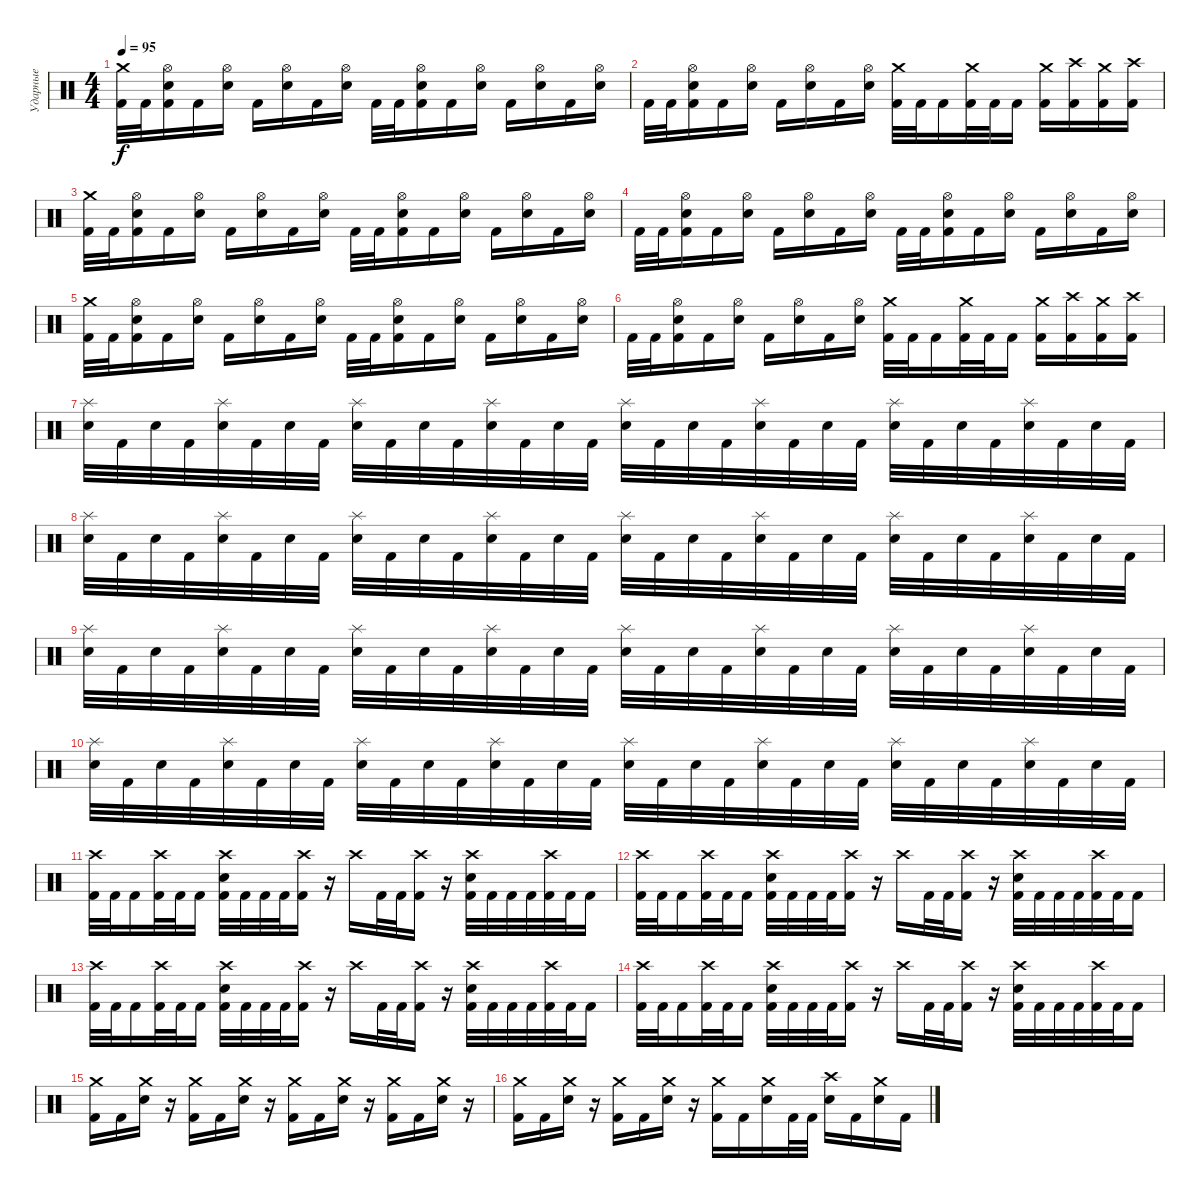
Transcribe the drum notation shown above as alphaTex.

\track ("Ударные" "Ударные") {instrument percussion}
\staff {score}
\articulation defaults
\ts (4 4)
\tempo 95
\clef neutral
\ks c
("Crash medium (hit)" "Kick (hit) 2").32{dy f} "Kick (hit) 2".32 ("Hi-Hat (open)" "Electric Snare (hit)" "Kick (hit) 2").16 "Kick (hit) 2".16 ("Hi-Hat (open)" "Electric Snare (hit)").16 "Kick (hit) 2".16 ("Hi-Hat (open)" "Electric Snare (hit)").16 "Kick (hit) 2".16 ("Hi-Hat (open)" "Electric Snare (hit)").16 "Kick (hit) 2".32 "Kick (hit) 2".32 ("Hi-Hat (open)" "Electric Snare (hit)" "Kick (hit) 2").16 "Kick (hit) 2".16 ("Hi-Hat (open)" "Electric Snare (hit)").16 "Kick (hit) 2".16 ("Hi-Hat (open)" "Electric Snare (hit)").16 "Kick (hit) 2".16 ("Hi-Hat (open)" "Electric Snare (hit)").16 |
"Kick (hit) 2".32 "Kick (hit) 2".32 ("Hi-Hat (open)" "Electric Snare (hit)" "Kick (hit) 2").16 "Kick (hit) 2".16 ("Hi-Hat (open)" "Electric Snare (hit)").16 "Kick (hit) 2".16 ("Hi-Hat (open)" "Electric Snare (hit)").16 "Kick (hit) 2".16 ("Hi-Hat (open)" "Electric Snare (hit)").16 ("Crash medium (hit)" "Kick (hit) 2").32 "Kick (hit) 2".32 "Kick (hit) 2".16 ("Crash medium (hit)" "Kick (hit) 2").32 "Kick (hit) 2".32 "Kick (hit) 2".16 ("Crash medium (hit)" "Kick (hit) 2").16 ("Crash high (hit)" "Kick (hit) 2").16 ("Crash medium (hit)" "Kick (hit) 2").16 ("Crash high (hit)" "Kick (hit) 2").16 |
("Crash medium (hit)" "Kick (hit) 2").32 "Kick (hit) 2".32 ("Hi-Hat (open)" "Electric Snare (hit)" "Kick (hit) 2").16 "Kick (hit) 2".16 ("Hi-Hat (open)" "Electric Snare (hit)").16 "Kick (hit) 2".16 ("Hi-Hat (open)" "Electric Snare (hit)").16 "Kick (hit) 2".16 ("Hi-Hat (open)" "Electric Snare (hit)").16 "Kick (hit) 2".32 "Kick (hit) 2".32 ("Hi-Hat (open)" "Electric Snare (hit)" "Kick (hit) 2").16 "Kick (hit) 2".16 ("Hi-Hat (open)" "Electric Snare (hit)").16 "Kick (hit) 2".16 ("Hi-Hat (open)" "Electric Snare (hit)").16 "Kick (hit) 2".16 ("Hi-Hat (open)" "Electric Snare (hit)").16 |
"Kick (hit) 2".32 "Kick (hit) 2".32 ("Hi-Hat (open)" "Electric Snare (hit)" "Kick (hit) 2").16 "Kick (hit) 2".16 ("Hi-Hat (open)" "Electric Snare (hit)").16 "Kick (hit) 2".16 ("Hi-Hat (open)" "Electric Snare (hit)").16 "Kick (hit) 2".16 ("Hi-Hat (open)" "Electric Snare (hit)").16 "Kick (hit) 2".32 "Kick (hit) 2".32 ("Hi-Hat (open)" "Electric Snare (hit)" "Kick (hit) 2").16 "Kick (hit) 2".16 ("Hi-Hat (open)" "Electric Snare (hit)").16 "Kick (hit) 2".16 ("Hi-Hat (open)" "Electric Snare (hit)").16 "Kick (hit) 2".16 ("Hi-Hat (open)" "Electric Snare (hit)").16 |
("Crash medium (hit)" "Kick (hit) 2").32 "Kick (hit) 2".32 ("Hi-Hat (open)" "Electric Snare (hit)" "Kick (hit) 2").16 "Kick (hit) 2".16 ("Hi-Hat (open)" "Electric Snare (hit)").16 "Kick (hit) 2".16 ("Hi-Hat (open)" "Electric Snare (hit)").16 "Kick (hit) 2".16 ("Hi-Hat (open)" "Electric Snare (hit)").16 "Kick (hit) 2".32 "Kick (hit) 2".32 ("Hi-Hat (open)" "Electric Snare (hit)" "Kick (hit) 2").16 "Kick (hit) 2".16 ("Hi-Hat (open)" "Electric Snare (hit)").16 "Kick (hit) 2".16 ("Hi-Hat (open)" "Electric Snare (hit)").16 "Kick (hit) 2".16 ("Hi-Hat (open)" "Electric Snare (hit)").16 |
"Kick (hit) 2".32 "Kick (hit) 2".32 ("Hi-Hat (open)" "Electric Snare (hit)" "Kick (hit) 2").16 "Kick (hit) 2".16 ("Hi-Hat (open)" "Electric Snare (hit)").16 "Kick (hit) 2".16 ("Hi-Hat (open)" "Electric Snare (hit)").16 "Kick (hit) 2".16 ("Hi-Hat (open)" "Electric Snare (hit)").16 ("Crash medium (hit)" "Kick (hit) 2").32 "Kick (hit) 2".32 "Kick (hit) 2".16 ("Crash medium (hit)" "Kick (hit) 2").32 "Kick (hit) 2".32 "Kick (hit) 2".16 ("Crash medium (hit)" "Kick (hit) 2").16 ("Crash high (hit)" "Kick (hit) 2").16 ("Crash medium (hit)" "Kick (hit) 2").16 ("Crash high (hit)" "Kick (hit) 2").16 |
("Splash (hit)" "Electric Snare (hit)").32 "Kick (hit) 2".32 "Electric Snare (hit)".32 "Kick (hit) 2".32 ("Splash (hit)" "Electric Snare (hit)").32 "Kick (hit) 2".32 "Electric Snare (hit)".32 "Kick (hit) 2".32 ("Splash (hit)" "Electric Snare (hit)").32 "Kick (hit) 2".32 "Electric Snare (hit)".32 "Kick (hit) 2".32 ("Splash (hit)" "Electric Snare (hit)").32 "Kick (hit) 2".32 "Electric Snare (hit)".32 "Kick (hit) 2".32 ("Splash (hit)" "Electric Snare (hit)").32 "Kick (hit) 2".32 "Electric Snare (hit)".32 "Kick (hit) 2".32 ("Splash (hit)" "Electric Snare (hit)").32 "Kick (hit) 2".32 "Electric Snare (hit)".32 "Kick (hit) 2".32 ("Splash (hit)" "Electric Snare (hit)").32 "Kick (hit) 2".32 "Electric Snare (hit)".32 "Kick (hit) 2".32 ("Splash (hit)" "Electric Snare (hit)").32 "Kick (hit) 2".32 "Electric Snare (hit)".32 "Kick (hit) 2".32 |
("Splash (hit)" "Electric Snare (hit)").32 "Kick (hit) 2".32 "Electric Snare (hit)".32 "Kick (hit) 2".32 ("Splash (hit)" "Electric Snare (hit)").32 "Kick (hit) 2".32 "Electric Snare (hit)".32 "Kick (hit) 2".32 ("Splash (hit)" "Electric Snare (hit)").32 "Kick (hit) 2".32 "Electric Snare (hit)".32 "Kick (hit) 2".32 ("Splash (hit)" "Electric Snare (hit)").32 "Kick (hit) 2".32 "Electric Snare (hit)".32 "Kick (hit) 2".32 ("Splash (hit)" "Electric Snare (hit)").32 "Kick (hit) 2".32 "Electric Snare (hit)".32 "Kick (hit) 2".32 ("Splash (hit)" "Electric Snare (hit)").32 "Kick (hit) 2".32 "Electric Snare (hit)".32 "Kick (hit) 2".32 ("Splash (hit)" "Electric Snare (hit)").32 "Kick (hit) 2".32 "Electric Snare (hit)".32 "Kick (hit) 2".32 ("Splash (hit)" "Electric Snare (hit)").32 "Kick (hit) 2".32 "Electric Snare (hit)".32 "Kick (hit) 2".32 |
("Splash (hit)" "Electric Snare (hit)").32 "Kick (hit) 2".32 "Electric Snare (hit)".32 "Kick (hit) 2".32 ("Splash (hit)" "Electric Snare (hit)").32 "Kick (hit) 2".32 "Electric Snare (hit)".32 "Kick (hit) 2".32 ("Splash (hit)" "Electric Snare (hit)").32 "Kick (hit) 2".32 "Electric Snare (hit)".32 "Kick (hit) 2".32 ("Splash (hit)" "Electric Snare (hit)").32 "Kick (hit) 2".32 "Electric Snare (hit)".32 "Kick (hit) 2".32 ("Splash (hit)" "Electric Snare (hit)").32 "Kick (hit) 2".32 "Electric Snare (hit)".32 "Kick (hit) 2".32 ("Splash (hit)" "Electric Snare (hit)").32 "Kick (hit) 2".32 "Electric Snare (hit)".32 "Kick (hit) 2".32 ("Splash (hit)" "Electric Snare (hit)").32 "Kick (hit) 2".32 "Electric Snare (hit)".32 "Kick (hit) 2".32 ("Splash (hit)" "Electric Snare (hit)").32 "Kick (hit) 2".32 "Electric Snare (hit)".32 "Kick (hit) 2".32 |
("Splash (hit)" "Electric Snare (hit)").32 "Kick (hit) 2".32 "Electric Snare (hit)".32 "Kick (hit) 2".32 ("Splash (hit)" "Electric Snare (hit)").32 "Kick (hit) 2".32 "Electric Snare (hit)".32 "Kick (hit) 2".32 ("Splash (hit)" "Electric Snare (hit)").32 "Kick (hit) 2".32 "Electric Snare (hit)".32 "Kick (hit) 2".32 ("Splash (hit)" "Electric Snare (hit)").32 "Kick (hit) 2".32 "Electric Snare (hit)".32 "Kick (hit) 2".32 ("Splash (hit)" "Electric Snare (hit)").32 "Kick (hit) 2".32 "Electric Snare (hit)".32 "Kick (hit) 2".32 ("Splash (hit)" "Electric Snare (hit)").32 "Kick (hit) 2".32 "Electric Snare (hit)".32 "Kick (hit) 2".32 ("Splash (hit)" "Electric Snare (hit)").32 "Kick (hit) 2".32 "Electric Snare (hit)".32 "Kick (hit) 2".32 ("Splash (hit)" "Electric Snare (hit)").32 "Kick (hit) 2".32 "Electric Snare (hit)".32 "Kick (hit) 2".32 |
("Crash high (hit)" "Kick (hit) 2").32 "Kick (hit) 2".32 "Kick (hit) 2".16 ("Crash high (hit)" "Kick (hit) 2").32 "Kick (hit) 2".32 "Kick (hit) 2".16 ("Crash high (hit)" "Electric Snare (hit)" "Kick (hit) 2").32 "Kick (hit) 2".32 "Kick (hit) 2".32 "Kick (hit) 2".32 ("Crash high (hit)" "Kick (hit) 2").16 r.16 "Crash high (hit)".16 "Kick (hit) 2".32 "Kick (hit) 2".32 ("Crash high (hit)" "Kick (hit) 2").16 r.16 ("Crash high (hit)" "Electric Snare (hit)" "Kick (hit) 2").32 "Kick (hit) 2".32 "Kick (hit) 2".32 "Kick (hit) 2".32 ("Crash high (hit)" "Kick (hit) 2").32 "Kick (hit) 2".32 "Kick (hit) 2".16 |
("Crash high (hit)" "Kick (hit) 2").32 "Kick (hit) 2".32 "Kick (hit) 2".16 ("Crash high (hit)" "Kick (hit) 2").32 "Kick (hit) 2".32 "Kick (hit) 2".16 ("Crash high (hit)" "Electric Snare (hit)" "Kick (hit) 2").32 "Kick (hit) 2".32 "Kick (hit) 2".32 "Kick (hit) 2".32 ("Crash high (hit)" "Kick (hit) 2").16 r.16 "Crash high (hit)".16 "Kick (hit) 2".32 "Kick (hit) 2".32 ("Crash high (hit)" "Kick (hit) 2").16 r.16 ("Crash high (hit)" "Electric Snare (hit)" "Kick (hit) 2").32 "Kick (hit) 2".32 "Kick (hit) 2".32 "Kick (hit) 2".32 ("Crash high (hit)" "Kick (hit) 2").32 "Kick (hit) 2".32 "Kick (hit) 2".16 |
("Crash high (hit)" "Kick (hit) 2").32 "Kick (hit) 2".32 "Kick (hit) 2".16 ("Crash high (hit)" "Kick (hit) 2").32 "Kick (hit) 2".32 "Kick (hit) 2".16 ("Crash high (hit)" "Electric Snare (hit)" "Kick (hit) 2").32 "Kick (hit) 2".32 "Kick (hit) 2".32 "Kick (hit) 2".32 ("Crash high (hit)" "Kick (hit) 2").16 r.16 "Crash high (hit)".16 "Kick (hit) 2".32 "Kick (hit) 2".32 ("Crash high (hit)" "Kick (hit) 2").16 r.16 ("Crash high (hit)" "Electric Snare (hit)" "Kick (hit) 2").32 "Kick (hit) 2".32 "Kick (hit) 2".32 "Kick (hit) 2".32 ("Crash high (hit)" "Kick (hit) 2").32 "Kick (hit) 2".32 "Kick (hit) 2".16 |
("Crash high (hit)" "Kick (hit) 2").32 "Kick (hit) 2".32 "Kick (hit) 2".16 ("Crash high (hit)" "Kick (hit) 2").32 "Kick (hit) 2".32 "Kick (hit) 2".16 ("Crash high (hit)" "Electric Snare (hit)" "Kick (hit) 2").32 "Kick (hit) 2".32 "Kick (hit) 2".32 "Kick (hit) 2".32 ("Crash high (hit)" "Kick (hit) 2").16 r.16 "Crash high (hit)".16 "Kick (hit) 2".32 "Kick (hit) 2".32 ("Crash high (hit)" "Kick (hit) 2").16 r.16 ("Crash high (hit)" "Electric Snare (hit)" "Kick (hit) 2").32 "Kick (hit) 2".32 "Kick (hit) 2".32 "Kick (hit) 2".32 ("Crash high (hit)" "Kick (hit) 2").32 "Kick (hit) 2".32 "Kick (hit) 2".16 |
("Crash medium (hit)" "Kick (hit) 2").16 "Kick (hit) 2".16 ("Crash medium (hit)" "Electric Snare (hit)").16 r.16 ("Crash medium (hit)" "Kick (hit) 2").16 "Kick (hit) 2".16 ("Crash medium (hit)" "Electric Snare (hit)").16 r.16 ("Crash medium (hit)" "Kick (hit) 2").16 "Kick (hit) 2".16 ("Crash medium (hit)" "Electric Snare (hit)").16 r.16 ("Crash medium (hit)" "Kick (hit) 2").16 "Kick (hit) 2".16 ("Crash medium (hit)" "Electric Snare (hit)").16 r.16 |
("Crash medium (hit)" "Kick (hit) 2").16 "Kick (hit) 2".16 ("Crash medium (hit)" "Electric Snare (hit)").16 r.16 ("Crash medium (hit)" "Kick (hit) 2").16 "Kick (hit) 2".16 ("Crash medium (hit)" "Electric Snare (hit)").16 r.16 ("Crash medium (hit)" "Kick (hit) 2").16 "Kick (hit) 2".16 ("Crash medium (hit)" "Electric Snare (hit)").16 "Kick (hit) 2".32 "Kick (hit) 2".32 ("Crash high (hit)" "Electric Snare (hit)").16 "Kick (hit) 2".16 ("Crash medium (hit)" "Electric Snare (hit)").16 "Kick (hit) 2".16
